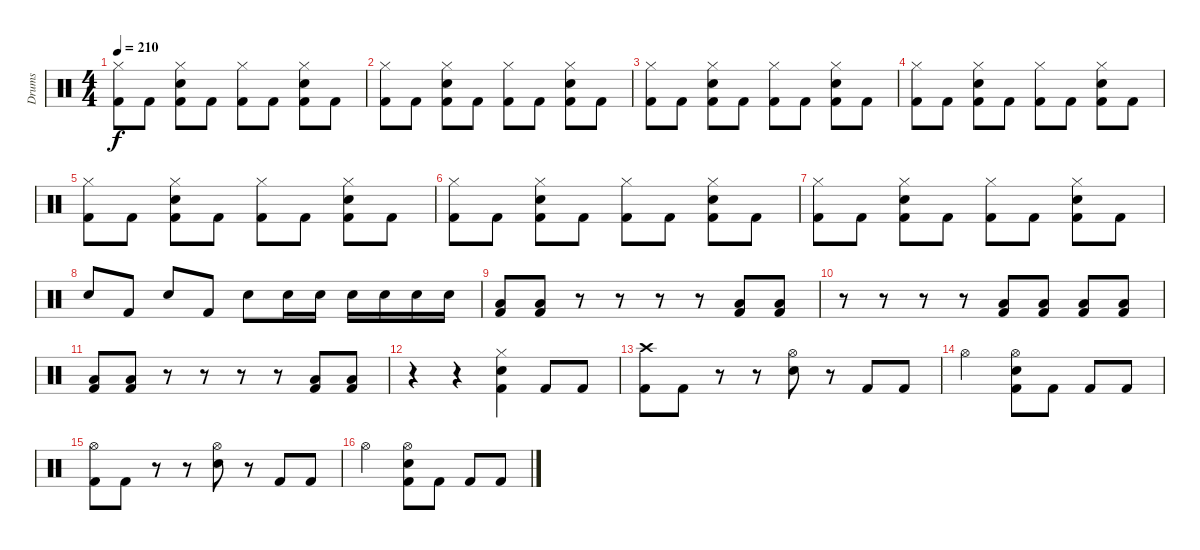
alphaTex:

\track ("Drums" "Drums") {instrument percussion}
\staff {score}
\articulation defaults
\ts (4 4)
\tempo 210
\clef neutral
\ks c
("Hi-Hat (closed)" "Kick (hit) 2").8{dy f} "Kick (hit) 2".8 ("Hi-Hat (closed)" "Electric Snare (hit)" "Kick (hit) 2").8 "Kick (hit) 2".8 ("Hi-Hat (closed)" "Kick (hit) 2").8 "Kick (hit) 2".8 ("Hi-Hat (closed)" "Electric Snare (hit)" "Kick (hit) 2").8 "Kick (hit) 2".8 |
("Hi-Hat (closed)" "Kick (hit) 2").8 "Kick (hit) 2".8 ("Hi-Hat (closed)" "Electric Snare (hit)" "Kick (hit) 2").8 "Kick (hit) 2".8 ("Hi-Hat (closed)" "Kick (hit) 2").8 "Kick (hit) 2".8 ("Hi-Hat (closed)" "Electric Snare (hit)" "Kick (hit) 2").8 "Kick (hit) 2".8 |
("Hi-Hat (closed)" "Kick (hit) 2").8 "Kick (hit) 2".8 ("Hi-Hat (closed)" "Electric Snare (hit)" "Kick (hit) 2").8 "Kick (hit) 2".8 ("Hi-Hat (closed)" "Kick (hit) 2").8 "Kick (hit) 2".8 ("Hi-Hat (closed)" "Electric Snare (hit)" "Kick (hit) 2").8 "Kick (hit) 2".8 |
("Hi-Hat (closed)" "Kick (hit) 2").8 "Kick (hit) 2".8 ("Hi-Hat (closed)" "Electric Snare (hit)" "Kick (hit) 2").8 "Kick (hit) 2".8 ("Hi-Hat (closed)" "Kick (hit) 2").8 "Kick (hit) 2".8 ("Hi-Hat (closed)" "Electric Snare (hit)" "Kick (hit) 2").8 "Kick (hit) 2".8 |
("Hi-Hat (closed)" "Kick (hit) 2").8 "Kick (hit) 2".8 ("Hi-Hat (closed)" "Electric Snare (hit)" "Kick (hit) 2").8 "Kick (hit) 2".8 ("Hi-Hat (closed)" "Kick (hit) 2").8 "Kick (hit) 2".8 ("Hi-Hat (closed)" "Electric Snare (hit)" "Kick (hit) 2").8 "Kick (hit) 2".8 |
("Hi-Hat (closed)" "Kick (hit) 2").8 "Kick (hit) 2".8 ("Hi-Hat (closed)" "Electric Snare (hit)" "Kick (hit) 2").8 "Kick (hit) 2".8 ("Hi-Hat (closed)" "Kick (hit) 2").8 "Kick (hit) 2".8 ("Hi-Hat (closed)" "Electric Snare (hit)" "Kick (hit) 2").8 "Kick (hit) 2".8 |
("Hi-Hat (closed)" "Kick (hit) 2").8 "Kick (hit) 2".8 ("Hi-Hat (closed)" "Electric Snare (hit)" "Kick (hit) 2").8 "Kick (hit) 2".8 ("Hi-Hat (closed)" "Kick (hit) 2").8 "Kick (hit) 2".8 ("Hi-Hat (closed)" "Electric Snare (hit)" "Kick (hit) 2").8 "Kick (hit) 2".8 |
"Electric Snare (hit)".8 "Kick (hit) 2".8 "Electric Snare (hit)".8 "Kick (hit) 2".8 "Electric Snare (hit)".8 "Electric Snare (hit)".16 "Electric Snare (hit)".16 "Electric Snare (hit)".16 "Electric Snare (hit)".16 "Electric Snare (hit)".16 "Electric Snare (hit)".16 |
("Low Floor Tom (hit)" "Kick (hit) 2").8 ("Low Floor Tom (hit)" "Kick (hit) 2").8 r.8 r.8 r.8 r.8 ("Low Floor Tom (hit)" "Kick (hit) 2").8 ("Low Floor Tom (hit)" "Kick (hit) 2").8 |
r.8 r.8 r.8 r.8 ("Low Floor Tom (hit)" "Kick (hit) 2").8 ("Low Floor Tom (hit)" "Kick (hit) 2").8 ("Low Floor Tom (hit)" "Kick (hit) 2").8 ("Low Floor Tom (hit)" "Kick (hit) 2").8 |
("Low Floor Tom (hit)" "Kick (hit) 2").8 ("Low Floor Tom (hit)" "Kick (hit) 2").8 r.8 r.8 r.8 r.8 ("Low Floor Tom (hit)" "Kick (hit) 2").8 ("Low Floor Tom (hit)" "Kick (hit) 2").8 |
r.4 r.4 ("Electric Snare (hit)" "Hi-Hat (closed)" "Kick (hit) 2").4 "Kick (hit) 2".8 "Kick (hit) 2".8 |
("Crash high (hit)" "Kick (hit) 2").8 "Kick (hit) 2".8 r.8 r.8 ("Hi-Hat (open)" "Electric Snare (hit)").8 r.8 "Kick (hit) 2".8 "Kick (hit) 2".8 |
"Hi-Hat (open)".2 ("Hi-Hat (open)" "Electric Snare (hit)" "Kick (hit) 2").8 "Kick (hit) 2".8 "Kick (hit) 2".8 "Kick (hit) 2".8 |
("Hi-Hat (open)" "Kick (hit) 2").8 "Kick (hit) 2".8 r.8 r.8 ("Hi-Hat (open)" "Electric Snare (hit)").8 r.8 "Kick (hit) 2".8 "Kick (hit) 2".8 |
"Hi-Hat (open)".2 ("Hi-Hat (open)" "Electric Snare (hit)" "Kick (hit) 2").8 "Kick (hit) 2".8 "Kick (hit) 2".8 "Kick (hit) 2".8
